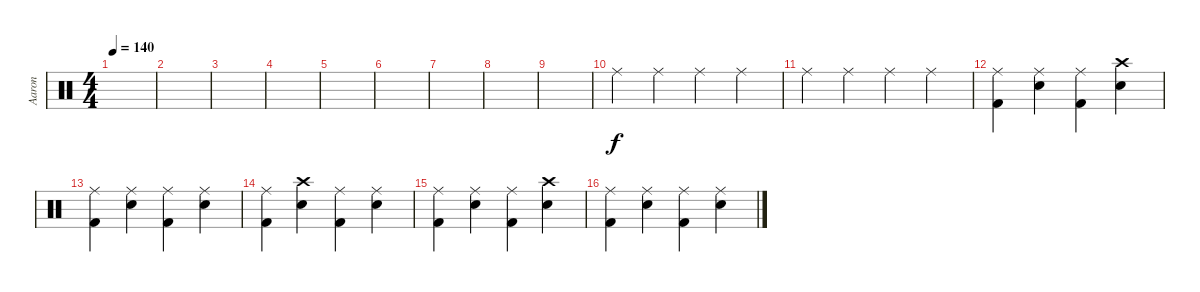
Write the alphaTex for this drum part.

\track ("Aaron" "Aaron") {instrument percussion}
\staff {score}
\articulation defaults
\ts (4 4)
\tempo 140
\clef neutral
\ks c
|
|
|
|
|
|
|
|
|
"Ride (middle)".4 "Ride (middle)".4 "Ride (middle)".4 "Ride (middle)".4 |
"Ride (middle)".4 "Ride (middle)".4 "Ride (middle)".4 "Ride (middle)".4 |
("Ride (middle)" "Kick (hit) 2").4 ("Ride (middle)" "Electric Snare (hit)").4 ("Ride (middle)" "Kick (hit) 2").4 ("Crash high (hit)" "Electric Snare (hit)").4 |
("Ride (middle)" "Kick (hit) 2").4 ("Ride (middle)" "Electric Snare (hit)").4 ("Ride (middle)" "Kick (hit) 2").4 ("Ride (middle)" "Electric Snare (hit)").4 |
("Ride (middle)" "Kick (hit) 2").4 ("Crash high (hit)" "Electric Snare (hit)").4 ("Ride (middle)" "Kick (hit) 2").4 ("Ride (middle)" "Electric Snare (hit)").4 |
("Ride (middle)" "Kick (hit) 2").4 ("Ride (middle)" "Electric Snare (hit)").4 ("Ride (middle)" "Kick (hit) 2").4 ("Crash high (hit)" "Electric Snare (hit)").4 |
("Ride (middle)" "Kick (hit) 2").4 ("Ride (middle)" "Electric Snare (hit)").4 ("Ride (middle)" "Kick (hit) 2").4 ("Ride (middle)" "Electric Snare (hit)").4
